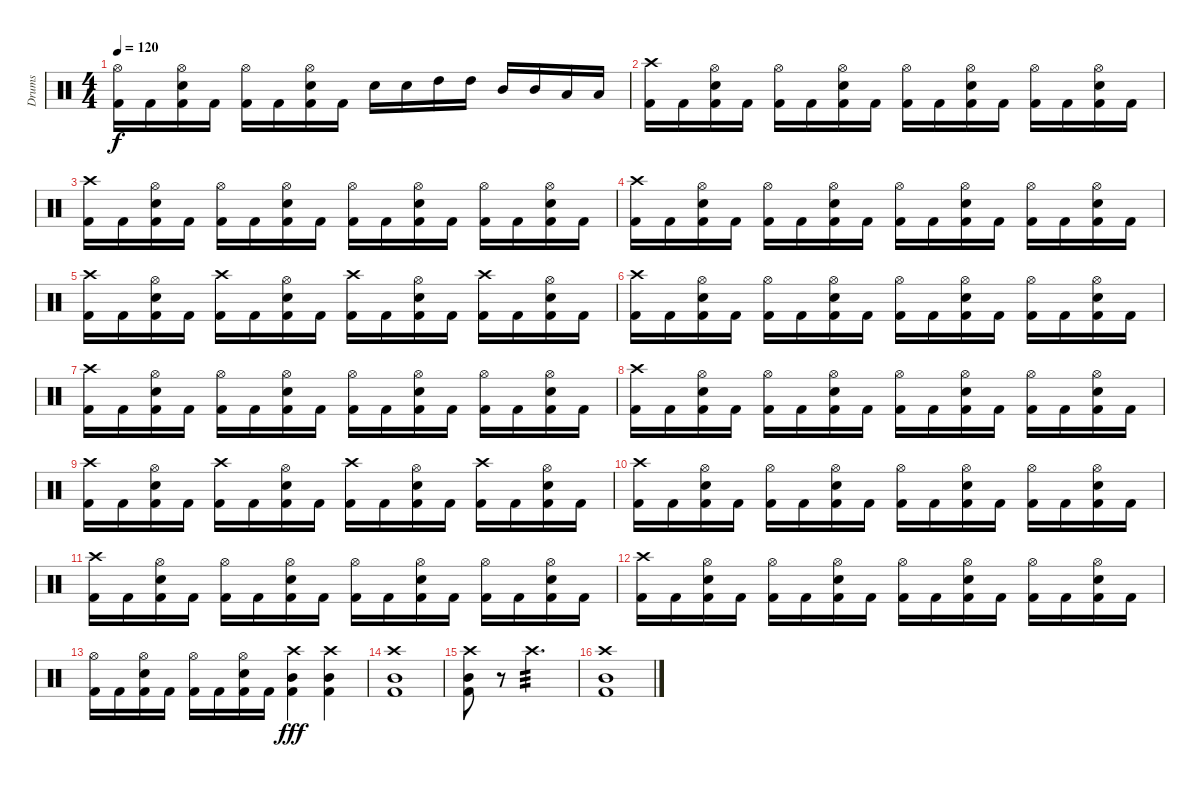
\track ("Drums" "Drums") {instrument percussion}
\staff {score}
\articulation defaults
\ts (4 4)
\tempo 120
\clef neutral
\ks c
("Hi-Hat (open)" "Kick (hit) 2").16{dy f} "Kick (hit) 2".16 ("Hi-Hat (open)" "Snare (hit) 2" "Kick (hit) 2").16 "Kick (hit) 2".16 ("Hi-Hat (open)" "Kick (hit) 2").16 "Kick (hit) 2".16 ("Hi-Hat (open)" "Snare (hit) 2" "Kick (hit) 2").16 "Kick (hit) 2".16 "Snare (hit) 2".16 "Snare (hit) 2".16 "High Tom (hit)".16 "High Tom (hit)".16 "Mid Tom (hit)".16 "Mid Tom (hit)".16 "Low Tom (hit)".16 "Low Tom (hit)".16 |
("Crash high (hit)" "Kick (hit) 2").16 "Kick (hit) 2".16 ("Hi-Hat (open)" "Snare (hit) 2" "Kick (hit) 2").16 "Kick (hit) 2".16 ("Hi-Hat (open)" "Kick (hit) 2").16 "Kick (hit) 2".16 ("Hi-Hat (open)" "Snare (hit) 2" "Kick (hit) 2").16 "Kick (hit) 2".16 ("Hi-Hat (open)" "Kick (hit) 2").16 "Kick (hit) 2".16 ("Hi-Hat (open)" "Snare (hit) 2" "Kick (hit) 2").16 "Kick (hit) 2".16 ("Hi-Hat (open)" "Kick (hit) 2").16 "Kick (hit) 2".16 ("Hi-Hat (open)" "Snare (hit) 2" "Kick (hit) 2").16 "Kick (hit) 2".16 |
("Crash high (hit)" "Kick (hit) 2").16 "Kick (hit) 2".16 ("Hi-Hat (open)" "Snare (hit) 2" "Kick (hit) 2").16 "Kick (hit) 2".16 ("Hi-Hat (open)" "Kick (hit) 2").16 "Kick (hit) 2".16 ("Hi-Hat (open)" "Snare (hit) 2" "Kick (hit) 2").16 "Kick (hit) 2".16 ("Hi-Hat (open)" "Kick (hit) 2").16 "Kick (hit) 2".16 ("Hi-Hat (open)" "Snare (hit) 2" "Kick (hit) 2").16 "Kick (hit) 2".16 ("Hi-Hat (open)" "Kick (hit) 2").16 "Kick (hit) 2".16 ("Hi-Hat (open)" "Snare (hit) 2" "Kick (hit) 2").16 "Kick (hit) 2".16 |
("Crash high (hit)" "Kick (hit) 2").16 "Kick (hit) 2".16 ("Hi-Hat (open)" "Snare (hit) 2" "Kick (hit) 2").16 "Kick (hit) 2".16 ("Hi-Hat (open)" "Kick (hit) 2").16 "Kick (hit) 2".16 ("Hi-Hat (open)" "Snare (hit) 2" "Kick (hit) 2").16 "Kick (hit) 2".16 ("Hi-Hat (open)" "Kick (hit) 2").16 "Kick (hit) 2".16 ("Hi-Hat (open)" "Snare (hit) 2" "Kick (hit) 2").16 "Kick (hit) 2".16 ("Hi-Hat (open)" "Kick (hit) 2").16 "Kick (hit) 2".16 ("Hi-Hat (open)" "Snare (hit) 2" "Kick (hit) 2").16 "Kick (hit) 2".16 |
("Crash high (hit)" "Kick (hit) 2").16 "Kick (hit) 2".16 ("Hi-Hat (open)" "Snare (hit) 2" "Kick (hit) 2").16 "Kick (hit) 2".16 ("Crash high (hit)" "Kick (hit) 2").16 "Kick (hit) 2".16 ("Hi-Hat (open)" "Snare (hit) 2" "Kick (hit) 2").16 "Kick (hit) 2".16 ("Crash high (hit)" "Kick (hit) 2").16 "Kick (hit) 2".16 ("Hi-Hat (open)" "Snare (hit) 2" "Kick (hit) 2").16 "Kick (hit) 2".16 ("Crash high (hit)" "Kick (hit) 2").16 "Kick (hit) 2".16 ("Hi-Hat (open)" "Snare (hit) 2" "Kick (hit) 2").16 "Kick (hit) 2".16 |
("Crash high (hit)" "Kick (hit) 2").16 "Kick (hit) 2".16 ("Hi-Hat (open)" "Snare (hit) 2" "Kick (hit) 2").16 "Kick (hit) 2".16 ("Hi-Hat (open)" "Kick (hit) 2").16 "Kick (hit) 2".16 ("Hi-Hat (open)" "Snare (hit) 2" "Kick (hit) 2").16 "Kick (hit) 2".16 ("Hi-Hat (open)" "Kick (hit) 2").16 "Kick (hit) 2".16 ("Hi-Hat (open)" "Snare (hit) 2" "Kick (hit) 2").16 "Kick (hit) 2".16 ("Hi-Hat (open)" "Kick (hit) 2").16 "Kick (hit) 2".16 ("Hi-Hat (open)" "Snare (hit) 2" "Kick (hit) 2").16 "Kick (hit) 2".16 |
("Crash high (hit)" "Kick (hit) 2").16 "Kick (hit) 2".16 ("Hi-Hat (open)" "Snare (hit) 2" "Kick (hit) 2").16 "Kick (hit) 2".16 ("Hi-Hat (open)" "Kick (hit) 2").16 "Kick (hit) 2".16 ("Hi-Hat (open)" "Snare (hit) 2" "Kick (hit) 2").16 "Kick (hit) 2".16 ("Hi-Hat (open)" "Kick (hit) 2").16 "Kick (hit) 2".16 ("Hi-Hat (open)" "Snare (hit) 2" "Kick (hit) 2").16 "Kick (hit) 2".16 ("Hi-Hat (open)" "Kick (hit) 2").16 "Kick (hit) 2".16 ("Hi-Hat (open)" "Snare (hit) 2" "Kick (hit) 2").16 "Kick (hit) 2".16 |
("Crash high (hit)" "Kick (hit) 2").16 "Kick (hit) 2".16 ("Hi-Hat (open)" "Snare (hit) 2" "Kick (hit) 2").16 "Kick (hit) 2".16 ("Hi-Hat (open)" "Kick (hit) 2").16 "Kick (hit) 2".16 ("Hi-Hat (open)" "Snare (hit) 2" "Kick (hit) 2").16 "Kick (hit) 2".16 ("Hi-Hat (open)" "Kick (hit) 2").16 "Kick (hit) 2".16 ("Hi-Hat (open)" "Snare (hit) 2" "Kick (hit) 2").16 "Kick (hit) 2".16 ("Hi-Hat (open)" "Kick (hit) 2").16 "Kick (hit) 2".16 ("Hi-Hat (open)" "Snare (hit) 2" "Kick (hit) 2").16 "Kick (hit) 2".16 |
("Crash high (hit)" "Kick (hit) 2").16 "Kick (hit) 2".16 ("Hi-Hat (open)" "Snare (hit) 2" "Kick (hit) 2").16 "Kick (hit) 2".16 ("Crash high (hit)" "Kick (hit) 2").16 "Kick (hit) 2".16 ("Hi-Hat (open)" "Snare (hit) 2" "Kick (hit) 2").16 "Kick (hit) 2".16 ("Crash high (hit)" "Kick (hit) 2").16 "Kick (hit) 2".16 ("Hi-Hat (open)" "Snare (hit) 2" "Kick (hit) 2").16 "Kick (hit) 2".16 ("Crash high (hit)" "Kick (hit) 2").16 "Kick (hit) 2".16 ("Hi-Hat (open)" "Snare (hit) 2" "Kick (hit) 2").16 "Kick (hit) 2".16 |
("Crash high (hit)" "Kick (hit) 2").16 "Kick (hit) 2".16 ("Hi-Hat (open)" "Snare (hit) 2" "Kick (hit) 2").16 "Kick (hit) 2".16 ("Hi-Hat (open)" "Kick (hit) 2").16 "Kick (hit) 2".16 ("Hi-Hat (open)" "Snare (hit) 2" "Kick (hit) 2").16 "Kick (hit) 2".16 ("Hi-Hat (open)" "Kick (hit) 2").16 "Kick (hit) 2".16 ("Hi-Hat (open)" "Snare (hit) 2" "Kick (hit) 2").16 "Kick (hit) 2".16 ("Hi-Hat (open)" "Kick (hit) 2").16 "Kick (hit) 2".16 ("Hi-Hat (open)" "Snare (hit) 2" "Kick (hit) 2").16 "Kick (hit) 2".16 |
("Crash high (hit)" "Kick (hit) 2").16 "Kick (hit) 2".16 ("Hi-Hat (open)" "Snare (hit) 2" "Kick (hit) 2").16 "Kick (hit) 2".16 ("Hi-Hat (open)" "Kick (hit) 2").16 "Kick (hit) 2".16 ("Hi-Hat (open)" "Snare (hit) 2" "Kick (hit) 2").16 "Kick (hit) 2".16 ("Hi-Hat (open)" "Kick (hit) 2").16 "Kick (hit) 2".16 ("Hi-Hat (open)" "Snare (hit) 2" "Kick (hit) 2").16 "Kick (hit) 2".16 ("Hi-Hat (open)" "Kick (hit) 2").16 "Kick (hit) 2".16 ("Hi-Hat (open)" "Snare (hit) 2" "Kick (hit) 2").16 "Kick (hit) 2".16 |
("Crash high (hit)" "Kick (hit) 2").16 "Kick (hit) 2".16 ("Hi-Hat (open)" "Snare (hit) 2" "Kick (hit) 2").16 "Kick (hit) 2".16 ("Hi-Hat (open)" "Kick (hit) 2").16 "Kick (hit) 2".16 ("Hi-Hat (open)" "Snare (hit) 2" "Kick (hit) 2").16 "Kick (hit) 2".16 ("Hi-Hat (open)" "Kick (hit) 2").16 "Kick (hit) 2".16 ("Hi-Hat (open)" "Snare (hit) 2" "Kick (hit) 2").16 "Kick (hit) 2".16 ("Hi-Hat (open)" "Kick (hit) 2").16 "Kick (hit) 2".16 ("Hi-Hat (open)" "Snare (hit) 2" "Kick (hit) 2").16 "Kick (hit) 2".16 |
("Hi-Hat (open)" "Kick (hit) 2").16 "Kick (hit) 2".16 ("Hi-Hat (open)" "Snare (hit) 2" "Kick (hit) 2").16 "Kick (hit) 2".16 ("Hi-Hat (open)" "Kick (hit) 2").16 "Kick (hit) 2".16 ("Hi-Hat (open)" "Snare (hit) 2" "Kick (hit) 2").16 "Kick (hit) 2".16 ("Mid Tom (hit)" "Crash high (hit)" "Kick (hit) 2").4{dy fff} ("Mid Tom (hit)" "Crash high (hit)" "Kick (hit) 2").4 |
("Mid Tom (hit)" "Crash high (hit)" "Kick (hit) 2").1 |
("Mid Tom (hit)" "Crash high (hit)" "Kick (hit) 2").8 r.8 "Crash high (hit)".2{d tp 3} |
("Crash high (hit)" "Mid Tom (hit)" "Kick (hit) 2").1
